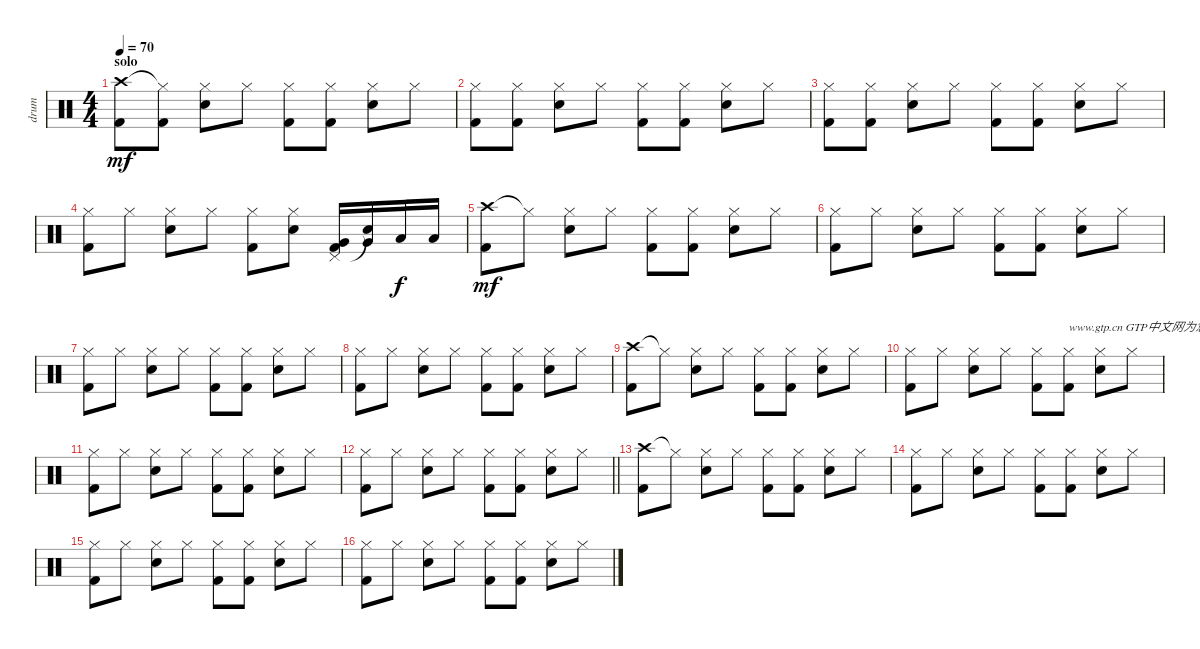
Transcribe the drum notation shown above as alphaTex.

\track ("drum" "drum") {instrument percussion}
\staff
\articulation defaults
\ts (4 4)
\section ("" "solo")
\tempo 70
\clef neutral
\ks c
("Crash high (hit)" "Kick (hit) 2").8{dy mf} ("Hi-Hat (closed)"{t} "Kick (hit) 2").8 ("Hi-Hat (closed)" "Electric Snare (hit)").8 "Hi-Hat (closed)".8 ("Hi-Hat (closed)" "Kick (hit) 2").8 ("Hi-Hat (closed)" "Kick (hit) 2").8 ("Hi-Hat (closed)" "Electric Snare (hit)").8 "Hi-Hat (closed)".8 |
("Hi-Hat (closed)" "Kick (hit) 2").8 ("Hi-Hat (closed)" "Kick (hit) 2").8 ("Hi-Hat (closed)" "Electric Snare (hit)").8 "Hi-Hat (closed)".8 ("Hi-Hat (closed)" "Kick (hit) 2").8 ("Hi-Hat (closed)" "Kick (hit) 2").8 ("Hi-Hat (closed)" "Electric Snare (hit)").8 "Hi-Hat (closed)".8 |
("Hi-Hat (closed)" "Kick (hit) 2").8 ("Hi-Hat (closed)" "Kick (hit) 2").8 ("Hi-Hat (closed)" "Electric Snare (hit)").8 "Hi-Hat (closed)".8 ("Hi-Hat (closed)" "Kick (hit) 2").8 ("Hi-Hat (closed)" "Kick (hit) 2").8 ("Hi-Hat (closed)" "Electric Snare (hit)").8 "Hi-Hat (closed)".8 |
("Hi-Hat (closed)" "Kick (hit) 2").8 "Hi-Hat (closed)".8 ("Hi-Hat (closed)" "Electric Snare (hit)").8 "Hi-Hat (closed)".8 ("Hi-Hat (closed)" "Kick (hit) 2").8 ("Hi-Hat (closed)" "Electric Snare (hit)").8 ("Pedal Hi-Hat (hit)" "Very Low Tom (hit)" "Kick (hit) 2").16 ("Snare (hit)"{t} "Very Low Tom (hit)").16 "Low Floor Tom (hit)".16{dy f} "Low Floor Tom (hit)".16 |
("Crash high (hit)" "Kick (hit) 2").8{dy mf} "Hi-Hat (closed)"{t}.8 ("Hi-Hat (closed)" "Electric Snare (hit)").8 "Hi-Hat (closed)".8 ("Hi-Hat (closed)" "Kick (hit) 2").8 ("Hi-Hat (closed)" "Kick (hit) 2").8 ("Hi-Hat (closed)" "Electric Snare (hit)").8 "Hi-Hat (closed)".8 |
("Hi-Hat (closed)" "Kick (hit) 2").8 "Hi-Hat (closed)".8 ("Hi-Hat (closed)" "Electric Snare (hit)").8 "Hi-Hat (closed)".8 ("Hi-Hat (closed)" "Kick (hit) 2").8 ("Hi-Hat (closed)" "Kick (hit) 2").8 ("Hi-Hat (closed)" "Electric Snare (hit)").8 "Hi-Hat (closed)".8 |
("Hi-Hat (closed)" "Kick (hit) 2").8 "Hi-Hat (closed)".8 ("Hi-Hat (closed)" "Electric Snare (hit)").8 "Hi-Hat (closed)".8 ("Hi-Hat (closed)" "Kick (hit) 2").8 ("Hi-Hat (closed)" "Kick (hit) 2").8 ("Hi-Hat (closed)" "Electric Snare (hit)").8 "Hi-Hat (closed)".8 |
("Hi-Hat (closed)" "Kick (hit) 2").8 "Hi-Hat (closed)".8 ("Hi-Hat (closed)" "Electric Snare (hit)").8 "Hi-Hat (closed)".8 ("Hi-Hat (closed)" "Kick (hit) 2").8 ("Hi-Hat (closed)" "Kick (hit) 2").8 ("Hi-Hat (closed)" "Electric Snare (hit)").8 "Hi-Hat (closed)".8 |
("Crash high (hit)" "Kick (hit) 2").8 "Hi-Hat (closed)"{t}.8 ("Hi-Hat (closed)" "Electric Snare (hit)").8 "Hi-Hat (closed)".8 ("Hi-Hat (closed)" "Kick (hit) 2").8 ("Hi-Hat (closed)" "Kick (hit) 2").8 ("Hi-Hat (closed)" "Electric Snare (hit)").8 "Hi-Hat (closed)".8 |
("Hi-Hat (closed)" "Kick (hit) 2").8 "Hi-Hat (closed)".8 ("Hi-Hat (closed)" "Electric Snare (hit)").8 "Hi-Hat (closed)".8 ("Hi-Hat (closed)" "Kick (hit) 2").8 ("Hi-Hat (closed)" "Kick (hit) 2").8{txt "www.gtp.cn GTP中文网为您提供优秀的谱子"} ("Hi-Hat (closed)" "Electric Snare (hit)").8 "Hi-Hat (closed)".8 |
("Hi-Hat (closed)" "Kick (hit) 2").8 "Hi-Hat (closed)".8 ("Hi-Hat (closed)" "Electric Snare (hit)").8 "Hi-Hat (closed)".8 ("Hi-Hat (closed)" "Kick (hit) 2").8 ("Hi-Hat (closed)" "Kick (hit) 2").8 ("Hi-Hat (closed)" "Electric Snare (hit)").8 "Hi-Hat (closed)".8 |
\barLineRight lightlight
("Hi-Hat (closed)" "Kick (hit) 2").8 "Hi-Hat (closed)".8 ("Hi-Hat (closed)" "Electric Snare (hit)").8 "Hi-Hat (closed)".8 ("Hi-Hat (closed)" "Kick (hit) 2").8 ("Hi-Hat (closed)" "Kick (hit) 2").8 ("Hi-Hat (closed)" "Electric Snare (hit)").8 "Hi-Hat (closed)".8 |
("Crash high (hit)" "Kick (hit) 2").8 "Hi-Hat (closed)"{t}.8 ("Hi-Hat (closed)" "Electric Snare (hit)").8 "Hi-Hat (closed)".8 ("Hi-Hat (closed)" "Kick (hit) 2").8 ("Hi-Hat (closed)" "Kick (hit) 2").8 ("Hi-Hat (closed)" "Electric Snare (hit)").8 "Hi-Hat (closed)".8 |
("Hi-Hat (closed)" "Kick (hit) 2").8 "Hi-Hat (closed)".8 ("Hi-Hat (closed)" "Electric Snare (hit)").8 "Hi-Hat (closed)".8 ("Hi-Hat (closed)" "Kick (hit) 2").8 ("Hi-Hat (closed)" "Kick (hit) 2").8 ("Hi-Hat (closed)" "Electric Snare (hit)").8 "Hi-Hat (closed)".8 |
("Hi-Hat (closed)" "Kick (hit) 2").8 "Hi-Hat (closed)".8 ("Hi-Hat (closed)" "Electric Snare (hit)").8 "Hi-Hat (closed)".8 ("Hi-Hat (closed)" "Kick (hit) 2").8 ("Hi-Hat (closed)" "Kick (hit) 2").8 ("Hi-Hat (closed)" "Electric Snare (hit)").8 "Hi-Hat (closed)".8 |
("Hi-Hat (closed)" "Kick (hit) 2").8 "Hi-Hat (closed)".8 ("Hi-Hat (closed)" "Electric Snare (hit)").8 "Hi-Hat (closed)".8 ("Hi-Hat (closed)" "Kick (hit) 2").8 ("Hi-Hat (closed)" "Kick (hit) 2").8 ("Hi-Hat (closed)" "Electric Snare (hit)").8 "Hi-Hat (closed)".8
